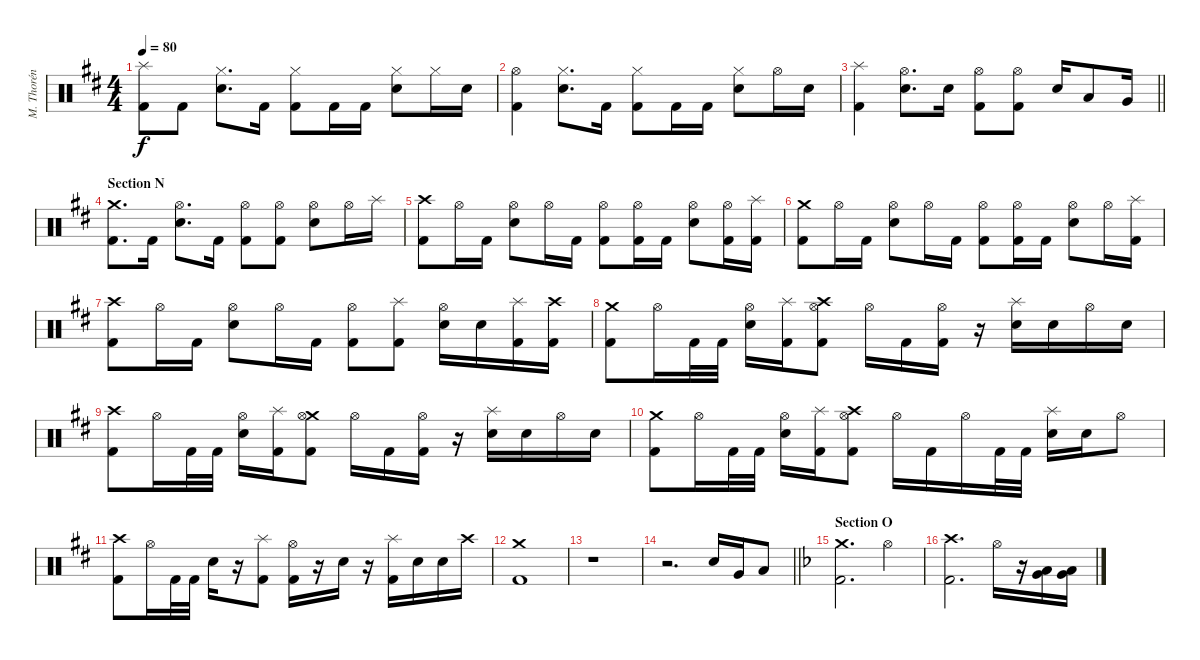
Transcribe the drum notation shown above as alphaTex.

\track ("M. Thorén (Drums)" "M. Thorén ") {instrument percussion}
\staff {score}
\articulation defaults
\ts (4 4)
\tempo 80
\clef neutral
\ks bminor
("Splash (hit)" "Kick (hit) 2").8{dy f} "Kick (hit) 2".8 ("Hi-Hat (closed)" "Electric Snare (hit)").8{d} "Kick (hit) 2".16 ("Hi-Hat (closed)" "Kick (hit) 2").8 "Kick (hit) 2".16 "Kick (hit) 2".16 ("Hi-Hat (closed)" "Electric Snare (hit)").8 "Hi-Hat (closed)".16 "Electric Snare (hit)".16 |
("Hi-Hat (open)" "Kick (hit) 2").4 ("Hi-Hat (closed)" "Electric Snare (hit)").8{d} "Kick (hit) 2".16 ("Hi-Hat (closed)" "Kick (hit) 2").8 "Kick (hit) 2".16 "Kick (hit) 2".16 ("Hi-Hat (closed)" "Electric Snare (hit)").8 "Hi-Hat (open)".16 "Electric Snare (hit)".16 |
\barLineRight lightlight
("Splash (hit)" "Kick (hit) 2").4 ("Hi-Hat (open)" "Electric Snare (hit)").8{d} "Electric Snare (hit)".16 ("Hi-Hat (open)" "Kick (hit) 2").8 ("Hi-Hat (open)" "Kick (hit) 2").8 "Electric Snare (hit)".16 "Low Tom (hit)".8 "Very Low Tom (hit)".16 |
\section ("" "Section N")
("Crash medium (hit)" "Kick (hit) 2").8{d} "Kick (hit) 2".16 ("Hi-Hat (open)" "Electric Snare (hit)").8{d} "Kick (hit) 2".16 ("Hi-Hat (open)" "Kick (hit) 2").8 ("Hi-Hat (open)" "Kick (hit) 2").8 ("Hi-Hat (open)" "Electric Snare (hit)").8 "Hi-Hat (open)".16 "Splash (hit)".16 |
("Crash high (hit)" "Kick (hit) 2").8 "Hi-Hat (open)".16 "Kick (hit) 2".16 ("Hi-Hat (open)" "Electric Snare (hit)").8 "Hi-Hat (open)".16 "Kick (hit) 2".16 ("Hi-Hat (open)" "Kick (hit) 2").8 ("Hi-Hat (open)" "Kick (hit) 2").16 "Kick (hit) 2".16 ("Hi-Hat (open)" "Electric Snare (hit)").8 ("Hi-Hat (open)" "Kick (hit) 2").16 ("Splash (hit)" "Kick (hit) 2").16 |
("Crash medium (hit)" "Kick (hit) 2").8 "Hi-Hat (open)".16 "Kick (hit) 2".16 ("Hi-Hat (open)" "Electric Snare (hit)").8 "Hi-Hat (open)".16 "Kick (hit) 2".16 ("Hi-Hat (open)" "Kick (hit) 2").8 ("Hi-Hat (open)" "Kick (hit) 2").16 "Kick (hit) 2".16 ("Hi-Hat (open)" "Electric Snare (hit)").8 "Hi-Hat (open)".16 ("Splash (hit)" "Kick (hit) 2").16 |
("Crash high (hit)" "Kick (hit) 2").8 "Hi-Hat (open)".16 "Kick (hit) 2".16 ("Hi-Hat (open)" "Electric Snare (hit)").8 "Hi-Hat (open)".16 "Kick (hit) 2".16 ("Hi-Hat (open)" "Kick (hit) 2").8 ("Splash (hit)" "Kick (hit) 2").8 ("Hi-Hat (open)" "Electric Snare (hit)").16 "Electric Snare (hit)".16 ("Splash (hit)" "Kick (hit) 2").16 ("Crash high (hit)" "Kick (hit) 2").16 |
("Crash medium (hit)" "Kick (hit) 2").8 "Hi-Hat (open)".16 "Kick (hit) 2".32 "Kick (hit) 2".32 ("Hi-Hat (open)" "Electric Snare (hit)").16 ("Splash (hit)" "Kick (hit) 2").16 ("Crash high (hit)" "Hi-Hat (open)" "Kick (hit) 2").8 "Hi-Hat (open)".16 "Kick (hit) 2".16 ("Hi-Hat (open)" "Kick (hit) 2").16 r.16 ("Splash (hit)" "Electric Snare (hit)").16 "Electric Snare (hit)".16 "Hi-Hat (open)".16 "Electric Snare (hit)".16 |
("Crash high (hit)" "Kick (hit) 2").8 "Hi-Hat (open)".16 "Kick (hit) 2".32 "Kick (hit) 2".32 ("Hi-Hat (open)" "Electric Snare (hit)").16 ("Splash (hit)" "Kick (hit) 2").16 ("Crash medium (hit)" "Hi-Hat (open)" "Kick (hit) 2").8 "Hi-Hat (open)".16 "Kick (hit) 2".16 ("Hi-Hat (open)" "Kick (hit) 2").16 r.16 ("Splash (hit)" "Electric Snare (hit)").16 "Electric Snare (hit)".16 "Hi-Hat (open)".16 "Electric Snare (hit)".16 |
("Crash medium (hit)" "Kick (hit) 2").8 "Hi-Hat (open)".16 "Kick (hit) 2".32 "Kick (hit) 2".32 ("Hi-Hat (open)" "Electric Snare (hit)").16 ("Splash (hit)" "Kick (hit) 2").16 ("Crash high (hit)" "Hi-Hat (open)" "Kick (hit) 2").8 "Hi-Hat (open)".16 "Kick (hit) 2".16 "Hi-Hat (open)".16 "Kick (hit) 2".32 "Kick (hit) 2".32 ("Splash (hit)" "Electric Snare (hit)").16 "Electric Snare (hit)".16 "Hi-Hat (open)".8 |
("Crash high (hit)" "Kick (hit) 2").8 "Hi-Hat (open)".16 "Kick (hit) 2".32 "Kick (hit) 2".32 "Electric Snare (hit)".16 r.16 ("Splash (hit)" "Kick (hit) 2").8 ("Hi-Hat (open)" "Kick (hit) 2").16 r.16 "Electric Snare (hit)".16 r.16 ("Splash (hit)" "Kick (hit) 2").16 "Electric Snare (hit)".16 "Electric Snare (hit)".16 "Crash high (hit)".16 |
("Crash medium (hit)" "Kick (hit) 2").1 |
r.1 |
\barLineRight lightlight
r.2{d} "Electric Snare (hit)".16 "Very Low Tom (hit)".16 "Low Floor Tom (hit)".8 |
\section ("" "Section O")
\ks dminor
("Crash medium (hit)" "Kick (hit) 2").2{d} "Hi-Hat (open)".4 |
("Crash high (hit)" "Kick (hit) 2").2{d} "Hi-Hat (open)".16 r.16 ("Low Tom (hit)" "Very Low Tom (hit)").16 ("Low Tom (hit)" "Very Low Tom (hit)").16
